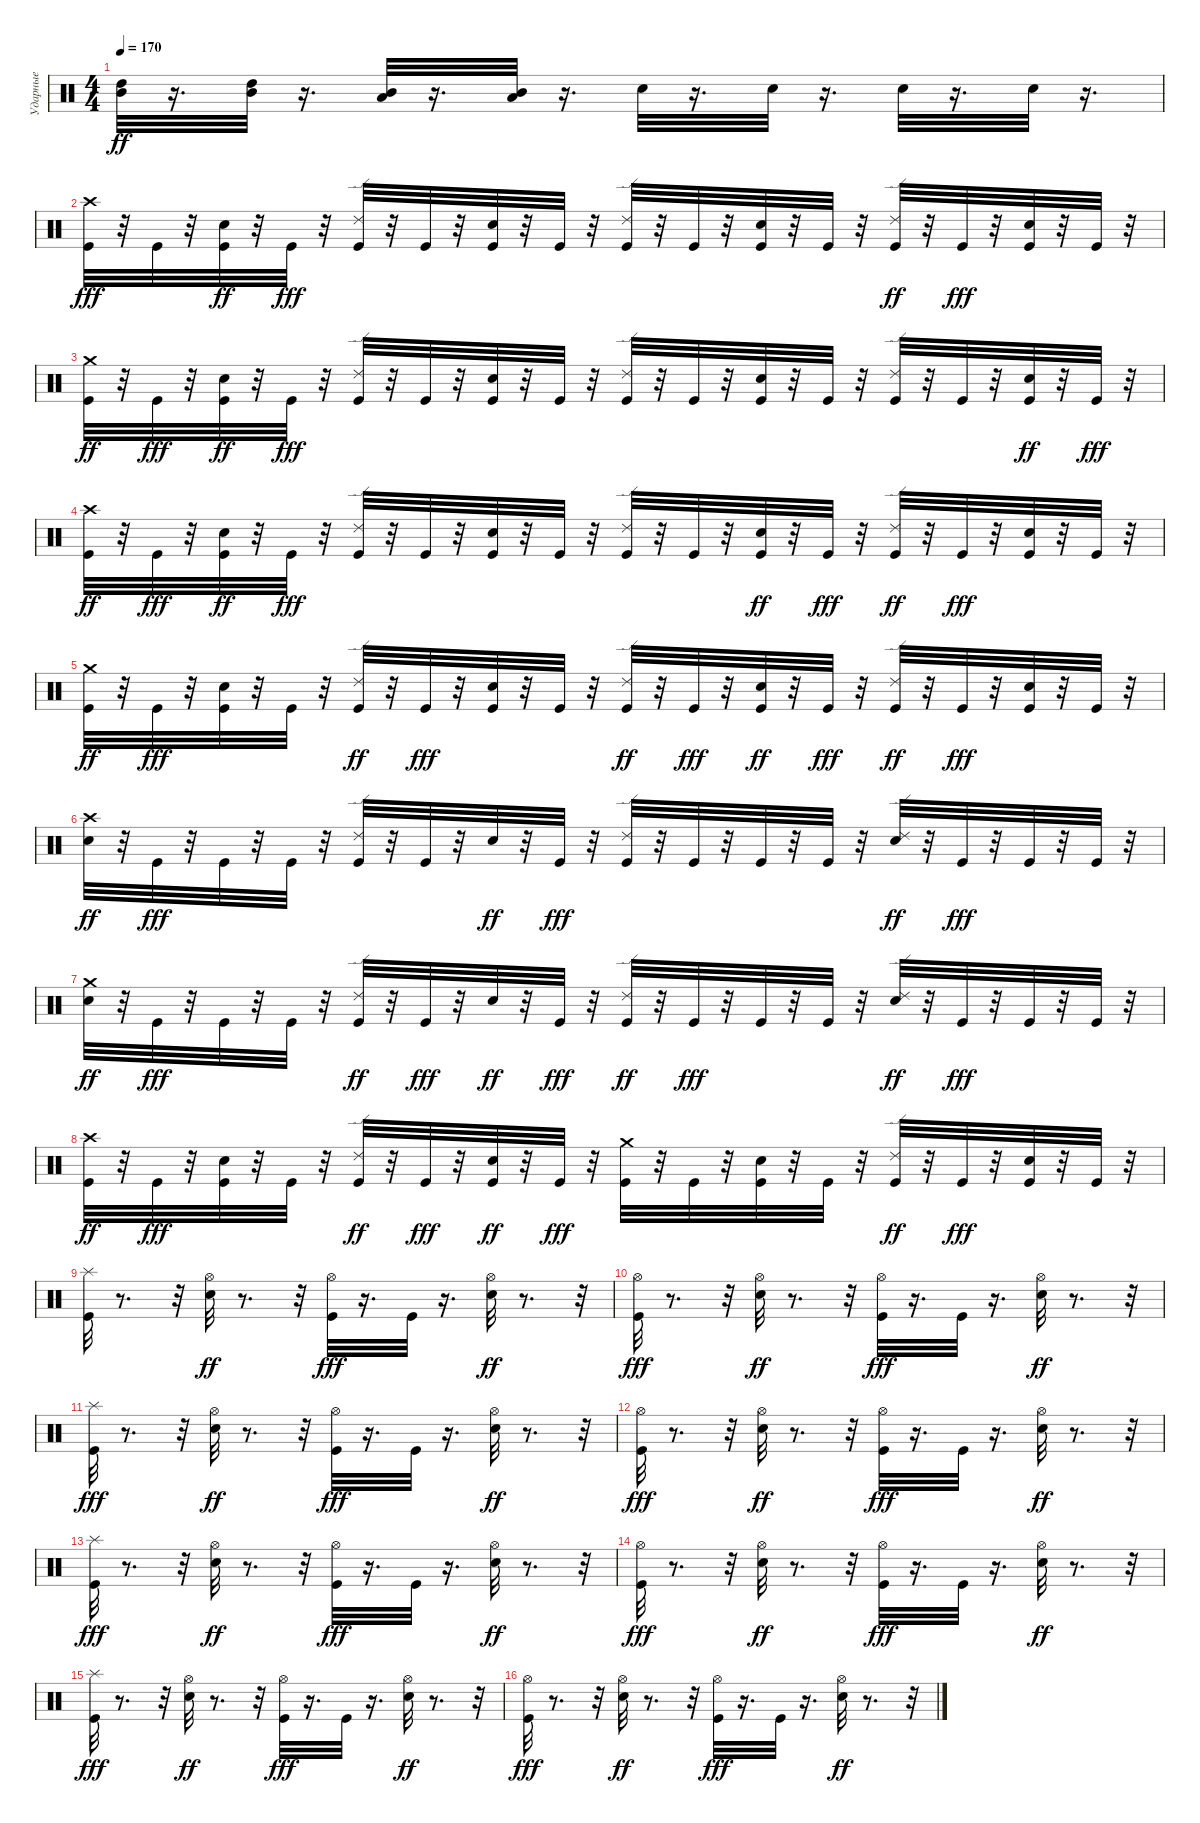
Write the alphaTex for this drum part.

\track ("Ударные" "Ударные") {instrument percussion}
\staff {score}
\articulation defaults
\ts (4 4)
\tempo 170
\clef neutral
\ks c
("High Tom (hit)" "Mid Tom (hit)").32{dy ff} r.16{d} ("Mid Tom (hit)" "High Tom (hit)").32 r.16{d} ("Mid Tom (hit)" "Low Tom (hit)").32 r.16{d} ("Mid Tom (hit)" "Low Tom (hit)").32 r.16{d} "Snare (hit) 2".32 r.16{d} "Snare (hit) 2".32 r.16{d} "Snare (hit) 2".32 r.16{d} "Snare (hit) 2".32 r.16{d} |
("Crash high (hit)" "Kick (hit)").32{dy fff} r.32 "Kick (hit)".32 r.32 ("Kick (hit)" "Snare (hit) 2").32{dy ff} r.32 "Kick (hit)".32{dy fff} r.32 ("Ride (edge) 2" "Kick (hit)").32 r.32 "Kick (hit)".32 r.32 ("Snare (hit) 2" "Kick (hit)").32 r.32 "Kick (hit)".32 r.32 ("Ride (edge) 2" "Kick (hit)").32 r.32 "Kick (hit)".32 r.32 ("Snare (hit) 2" "Kick (hit)").32 r.32 "Kick (hit)".32 r.32 ("Kick (hit)" "Ride (edge) 2").32{dy ff} r.32 "Kick (hit)".32{dy fff} r.32 ("Snare (hit) 2" "Kick (hit)").32 r.32 "Kick (hit)".32 r.32 |
("Kick (hit)" "Crash medium (hit)").32{dy ff} r.32 "Kick (hit)".32{dy fff} r.32 ("Kick (hit)" "Snare (hit) 2").32{dy ff} r.32 "Kick (hit)".32{dy fff} r.32 ("Ride (edge) 2" "Kick (hit)").32 r.32 "Kick (hit)".32 r.32 ("Snare (hit) 2" "Kick (hit)").32 r.32 "Kick (hit)".32 r.32 ("Ride (edge) 2" "Kick (hit)").32 r.32 "Kick (hit)".32 r.32 ("Snare (hit) 2" "Kick (hit)").32 r.32 "Kick (hit)".32 r.32 ("Ride (edge) 2" "Kick (hit)").32 r.32 "Kick (hit)".32 r.32 ("Kick (hit)" "Snare (hit) 2").32{dy ff} r.32 "Kick (hit)".32{dy fff} r.32 |
("Kick (hit)" "Crash high (hit)").32{dy ff} r.32 "Kick (hit)".32{dy fff} r.32 ("Kick (hit)" "Snare (hit) 2").32{dy ff} r.32 "Kick (hit)".32{dy fff} r.32 ("Ride (edge) 2" "Kick (hit)").32 r.32 "Kick (hit)".32 r.32 ("Snare (hit) 2" "Kick (hit)").32 r.32 "Kick (hit)".32 r.32 ("Ride (edge) 2" "Kick (hit)").32 r.32 "Kick (hit)".32 r.32 ("Kick (hit)" "Snare (hit) 2").32{dy ff} r.32 "Kick (hit)".32{dy fff} r.32 ("Kick (hit)" "Ride (edge) 2").32{dy ff} r.32 "Kick (hit)".32{dy fff} r.32 ("Snare (hit) 2" "Kick (hit)").32 r.32 "Kick (hit)".32 r.32 |
("Kick (hit)" "Crash medium (hit)").32{dy ff} r.32 "Kick (hit)".32{dy fff} r.32 ("Snare (hit) 2" "Kick (hit)").32 r.32 "Kick (hit)".32 r.32 ("Kick (hit)" "Ride (edge) 2").32{dy ff} r.32 "Kick (hit)".32{dy fff} r.32 ("Snare (hit) 2" "Kick (hit)").32 r.32 "Kick (hit)".32 r.32 ("Kick (hit)" "Ride (edge) 2").32{dy ff} r.32 "Kick (hit)".32{dy fff} r.32 ("Kick (hit)" "Snare (hit) 2").32{dy ff} r.32 "Kick (hit)".32{dy fff} r.32 ("Kick (hit)" "Ride (edge) 2").32{dy ff} r.32 "Kick (hit)".32{dy fff} r.32 ("Snare (hit) 2" "Kick (hit)").32 r.32 "Kick (hit)".32 r.32 |
("Crash high (hit)" "Snare (hit) 2").32{dy ff} r.32 "Kick (hit)".32{dy fff} r.32 "Kick (hit)".32 r.32 "Kick (hit)".32 r.32 ("Ride (edge) 2" "Kick (hit)").32 r.32 "Kick (hit)".32 r.32 "Snare (hit) 2".32{dy ff} r.32 "Kick (hit)".32{dy fff} r.32 ("Ride (edge) 2" "Kick (hit)").32 r.32 "Kick (hit)".32 r.32 "Kick (hit)".32 r.32 "Kick (hit)".32 r.32 ("Ride (edge) 2" "Snare (hit) 2").32{dy ff} r.32 "Kick (hit)".32{dy fff} r.32 "Kick (hit)".32 r.32 "Kick (hit)".32 r.32 |
("Snare (hit) 2" "Crash medium (hit)").32{dy ff} r.32 "Kick (hit)".32{dy fff} r.32 "Kick (hit)".32 r.32 "Kick (hit)".32 r.32 ("Kick (hit)" "Ride (edge) 2").32{dy ff} r.32 "Kick (hit)".32{dy fff} r.32 "Snare (hit) 2".32{dy ff} r.32 "Kick (hit)".32{dy fff} r.32 ("Kick (hit)" "Ride (edge) 2").32{dy ff} r.32 "Kick (hit)".32{dy fff} r.32 "Kick (hit)".32 r.32 "Kick (hit)".32 r.32 ("Ride (edge) 2" "Snare (hit) 2").32{dy ff} r.32 "Kick (hit)".32{dy fff} r.32 "Kick (hit)".32 r.32 "Kick (hit)".32 r.32 |
("Kick (hit)" "Crash high (hit)").32{dy ff} r.32 "Kick (hit)".32{dy fff} r.32 ("Snare (hit) 2" "Kick (hit)").32 r.32 "Kick (hit)".32 r.32 ("Kick (hit)" "Ride (edge) 2").32{dy ff} r.32 "Kick (hit)".32{dy fff} r.32 ("Kick (hit)" "Snare (hit) 2").32{dy ff} r.32 "Kick (hit)".32{dy fff} r.32 ("Crash medium (hit)" "Kick (hit)").32 r.32 "Kick (hit)".32 r.32 ("Snare (hit) 2" "Kick (hit)").32 r.32 "Kick (hit)".32 r.32 ("Kick (hit)" "Ride (edge) 2").32{dy ff} r.32 "Kick (hit)".32{dy fff} r.32 ("Snare (hit) 2" "Kick (hit)").32 r.32 "Kick (hit)".32 r.32 |
("Splash (hit)" "Kick (hit)").32 r.8{d} r.32 ("Hi-Hat (open)" "Snare (hit) 2").32{dy ff} r.8{d} r.32 ("Hi-Hat (open)" "Kick (hit)").32{dy fff} r.16{d} "Kick (hit)".32 r.16{d} ("Hi-Hat (open)" "Snare (hit) 2").32{dy ff} r.8{d} r.32 |
("Kick (hit)" "Hi-Hat (open)").32{dy fff} r.8{d} r.32 ("Snare (hit) 2" "Hi-Hat (open)").32{dy ff} r.8{d} r.32 ("Kick (hit)" "Hi-Hat (open)").32{dy fff} r.16{d} "Kick (hit)".32 r.16{d} ("Hi-Hat (open)" "Snare (hit) 2").32{dy ff} r.8{d} r.32 |
("Splash (hit)" "Kick (hit)").32{dy fff} r.8{d} r.32 ("Hi-Hat (open)" "Snare (hit) 2").32{dy ff} r.8{d} r.32 ("Hi-Hat (open)" "Kick (hit)").32{dy fff} r.16{d} "Kick (hit)".32 r.16{d} ("Hi-Hat (open)" "Snare (hit) 2").32{dy ff} r.8{d} r.32 |
("Kick (hit)" "Hi-Hat (open)").32{dy fff} r.8{d} r.32 ("Snare (hit) 2" "Hi-Hat (open)").32{dy ff} r.8{d} r.32 ("Kick (hit)" "Hi-Hat (open)").32{dy fff} r.16{d} "Kick (hit)".32 r.16{d} ("Hi-Hat (open)" "Snare (hit) 2").32{dy ff} r.8{d} r.32 |
("Splash (hit)" "Kick (hit)").32{dy fff} r.8{d} r.32 ("Hi-Hat (open)" "Snare (hit) 2").32{dy ff} r.8{d} r.32 ("Hi-Hat (open)" "Kick (hit)").32{dy fff} r.16{d} "Kick (hit)".32 r.16{d} ("Hi-Hat (open)" "Snare (hit) 2").32{dy ff} r.8{d} r.32 |
("Kick (hit)" "Hi-Hat (open)").32{dy fff} r.8{d} r.32 ("Snare (hit) 2" "Hi-Hat (open)").32{dy ff} r.8{d} r.32 ("Kick (hit)" "Hi-Hat (open)").32{dy fff} r.16{d} "Kick (hit)".32 r.16{d} ("Hi-Hat (open)" "Snare (hit) 2").32{dy ff} r.8{d} r.32 |
("Splash (hit)" "Kick (hit)").32{dy fff} r.8{d} r.32 ("Hi-Hat (open)" "Snare (hit) 2").32{dy ff} r.8{d} r.32 ("Hi-Hat (open)" "Kick (hit)").32{dy fff} r.16{d} "Kick (hit)".32 r.16{d} ("Hi-Hat (open)" "Snare (hit) 2").32{dy ff} r.8{d} r.32 |
("Kick (hit)" "Hi-Hat (open)").32{dy fff} r.8{d} r.32 ("Snare (hit) 2" "Hi-Hat (open)").32{dy ff} r.8{d} r.32 ("Kick (hit)" "Hi-Hat (open)").32{dy fff} r.16{d} "Kick (hit)".32 r.16{d} ("Hi-Hat (open)" "Snare (hit) 2").32{dy ff} r.8{d} r.32
